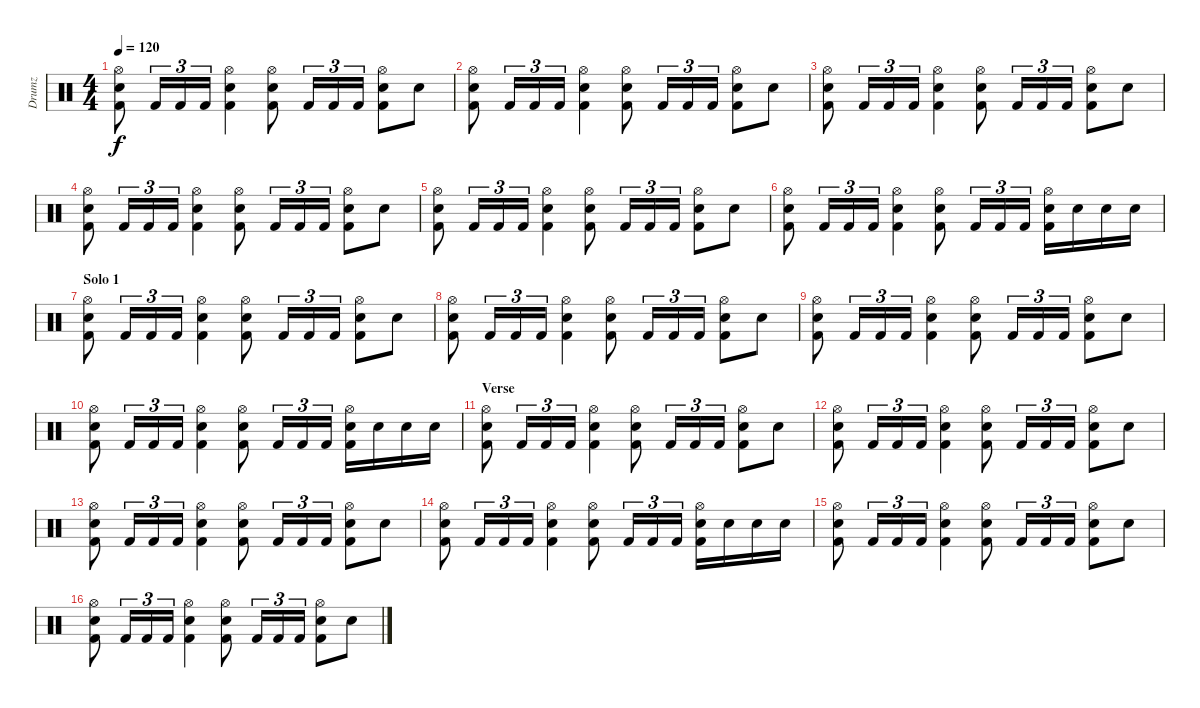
\track ("Drumz" "Drumz") {instrument percussion}
\staff {score}
\articulation defaults
\ts (4 4)
\tempo 120
\clef neutral
\ks c
("Hi-Hat (open)" "Snare (hit) 2" "Kick (hit) 2").8{dy f} "Kick (hit) 2".16{tu (3 2)} "Kick (hit) 2".16{tu (3 2)} "Kick (hit) 2".16{tu (3 2)} ("Hi-Hat (open)" "Snare (hit) 2" "Kick (hit) 2").4 ("Hi-Hat (open)" "Snare (hit) 2" "Kick (hit) 2").8 "Kick (hit) 2".16{tu (3 2)} "Kick (hit) 2".16{tu (3 2)} "Kick (hit) 2".16{tu (3 2)} ("Hi-Hat (open)" "Snare (hit) 2" "Kick (hit) 2").8 "Snare (hit) 2".8 |
("Hi-Hat (open)" "Snare (hit) 2" "Kick (hit) 2").8 "Kick (hit) 2".16{tu (3 2)} "Kick (hit) 2".16{tu (3 2)} "Kick (hit) 2".16{tu (3 2)} ("Hi-Hat (open)" "Snare (hit) 2" "Kick (hit) 2").4 ("Hi-Hat (open)" "Snare (hit) 2" "Kick (hit) 2").8 "Kick (hit) 2".16{tu (3 2)} "Kick (hit) 2".16{tu (3 2)} "Kick (hit) 2".16{tu (3 2)} ("Hi-Hat (open)" "Snare (hit) 2" "Kick (hit) 2").8 "Snare (hit) 2".8 |
("Hi-Hat (open)" "Snare (hit) 2" "Kick (hit) 2").8 "Kick (hit) 2".16{tu (3 2)} "Kick (hit) 2".16{tu (3 2)} "Kick (hit) 2".16{tu (3 2)} ("Hi-Hat (open)" "Snare (hit) 2" "Kick (hit) 2").4 ("Hi-Hat (open)" "Snare (hit) 2" "Kick (hit) 2").8 "Kick (hit) 2".16{tu (3 2)} "Kick (hit) 2".16{tu (3 2)} "Kick (hit) 2".16{tu (3 2)} ("Hi-Hat (open)" "Snare (hit) 2" "Kick (hit) 2").8 "Snare (hit) 2".8 |
("Hi-Hat (open)" "Snare (hit) 2" "Kick (hit) 2").8 "Kick (hit) 2".16{tu (3 2)} "Kick (hit) 2".16{tu (3 2)} "Kick (hit) 2".16{tu (3 2)} ("Hi-Hat (open)" "Snare (hit) 2" "Kick (hit) 2").4 ("Hi-Hat (open)" "Snare (hit) 2" "Kick (hit) 2").8 "Kick (hit) 2".16{tu (3 2)} "Kick (hit) 2".16{tu (3 2)} "Kick (hit) 2".16{tu (3 2)} ("Hi-Hat (open)" "Snare (hit) 2" "Kick (hit) 2").8 "Snare (hit) 2".8 |
("Hi-Hat (open)" "Snare (hit) 2" "Kick (hit) 2").8 "Kick (hit) 2".16{tu (3 2)} "Kick (hit) 2".16{tu (3 2)} "Kick (hit) 2".16{tu (3 2)} ("Hi-Hat (open)" "Snare (hit) 2" "Kick (hit) 2").4 ("Hi-Hat (open)" "Snare (hit) 2" "Kick (hit) 2").8 "Kick (hit) 2".16{tu (3 2)} "Kick (hit) 2".16{tu (3 2)} "Kick (hit) 2".16{tu (3 2)} ("Hi-Hat (open)" "Snare (hit) 2" "Kick (hit) 2").8 "Snare (hit) 2".8 |
("Hi-Hat (open)" "Snare (hit) 2" "Kick (hit) 2").8 "Kick (hit) 2".16{tu (3 2)} "Kick (hit) 2".16{tu (3 2)} "Kick (hit) 2".16{tu (3 2)} ("Hi-Hat (open)" "Snare (hit) 2" "Kick (hit) 2").4 ("Hi-Hat (open)" "Snare (hit) 2" "Kick (hit) 2").8 "Kick (hit) 2".16{tu (3 2)} "Kick (hit) 2".16{tu (3 2)} "Kick (hit) 2".16{tu (3 2)} ("Hi-Hat (open)" "Snare (hit) 2" "Kick (hit) 2").16 "Snare (hit) 2".16 "Snare (hit) 2".16 "Snare (hit) 2".16 |
\section ("" "Solo 1")
("Hi-Hat (open)" "Snare (hit) 2" "Kick (hit) 2").8 "Kick (hit) 2".16{tu (3 2)} "Kick (hit) 2".16{tu (3 2)} "Kick (hit) 2".16{tu (3 2)} ("Hi-Hat (open)" "Snare (hit) 2" "Kick (hit) 2").4 ("Hi-Hat (open)" "Snare (hit) 2" "Kick (hit) 2").8 "Kick (hit) 2".16{tu (3 2)} "Kick (hit) 2".16{tu (3 2)} "Kick (hit) 2".16{tu (3 2)} ("Hi-Hat (open)" "Snare (hit) 2" "Kick (hit) 2").8 "Snare (hit) 2".8 |
("Hi-Hat (open)" "Snare (hit) 2" "Kick (hit) 2").8 "Kick (hit) 2".16{tu (3 2)} "Kick (hit) 2".16{tu (3 2)} "Kick (hit) 2".16{tu (3 2)} ("Hi-Hat (open)" "Snare (hit) 2" "Kick (hit) 2").4 ("Hi-Hat (open)" "Snare (hit) 2" "Kick (hit) 2").8 "Kick (hit) 2".16{tu (3 2)} "Kick (hit) 2".16{tu (3 2)} "Kick (hit) 2".16{tu (3 2)} ("Hi-Hat (open)" "Snare (hit) 2" "Kick (hit) 2").8 "Snare (hit) 2".8 |
("Hi-Hat (open)" "Snare (hit) 2" "Kick (hit) 2").8 "Kick (hit) 2".16{tu (3 2)} "Kick (hit) 2".16{tu (3 2)} "Kick (hit) 2".16{tu (3 2)} ("Hi-Hat (open)" "Snare (hit) 2" "Kick (hit) 2").4 ("Hi-Hat (open)" "Snare (hit) 2" "Kick (hit) 2").8 "Kick (hit) 2".16{tu (3 2)} "Kick (hit) 2".16{tu (3 2)} "Kick (hit) 2".16{tu (3 2)} ("Hi-Hat (open)" "Snare (hit) 2" "Kick (hit) 2").8 "Snare (hit) 2".8 |
("Hi-Hat (open)" "Snare (hit) 2" "Kick (hit) 2").8 "Kick (hit) 2".16{tu (3 2)} "Kick (hit) 2".16{tu (3 2)} "Kick (hit) 2".16{tu (3 2)} ("Hi-Hat (open)" "Snare (hit) 2" "Kick (hit) 2").4 ("Hi-Hat (open)" "Snare (hit) 2" "Kick (hit) 2").8 "Kick (hit) 2".16{tu (3 2)} "Kick (hit) 2".16{tu (3 2)} "Kick (hit) 2".16{tu (3 2)} ("Hi-Hat (open)" "Snare (hit) 2" "Kick (hit) 2").16 "Snare (hit) 2".16 "Snare (hit) 2".16 "Snare (hit) 2".16 |
\section ("" "Verse")
("Hi-Hat (open)" "Snare (hit) 2" "Kick (hit) 2").8 "Kick (hit) 2".16{tu (3 2)} "Kick (hit) 2".16{tu (3 2)} "Kick (hit) 2".16{tu (3 2)} ("Hi-Hat (open)" "Snare (hit) 2" "Kick (hit) 2").4 ("Hi-Hat (open)" "Snare (hit) 2" "Kick (hit) 2").8 "Kick (hit) 2".16{tu (3 2)} "Kick (hit) 2".16{tu (3 2)} "Kick (hit) 2".16{tu (3 2)} ("Hi-Hat (open)" "Snare (hit) 2" "Kick (hit) 2").8 "Snare (hit) 2".8 |
("Hi-Hat (open)" "Snare (hit) 2" "Kick (hit) 2").8 "Kick (hit) 2".16{tu (3 2)} "Kick (hit) 2".16{tu (3 2)} "Kick (hit) 2".16{tu (3 2)} ("Hi-Hat (open)" "Snare (hit) 2" "Kick (hit) 2").4 ("Hi-Hat (open)" "Snare (hit) 2" "Kick (hit) 2").8 "Kick (hit) 2".16{tu (3 2)} "Kick (hit) 2".16{tu (3 2)} "Kick (hit) 2".16{tu (3 2)} ("Hi-Hat (open)" "Snare (hit) 2" "Kick (hit) 2").8 "Snare (hit) 2".8 |
("Hi-Hat (open)" "Snare (hit) 2" "Kick (hit) 2").8 "Kick (hit) 2".16{tu (3 2)} "Kick (hit) 2".16{tu (3 2)} "Kick (hit) 2".16{tu (3 2)} ("Hi-Hat (open)" "Snare (hit) 2" "Kick (hit) 2").4 ("Hi-Hat (open)" "Snare (hit) 2" "Kick (hit) 2").8 "Kick (hit) 2".16{tu (3 2)} "Kick (hit) 2".16{tu (3 2)} "Kick (hit) 2".16{tu (3 2)} ("Hi-Hat (open)" "Snare (hit) 2" "Kick (hit) 2").8 "Snare (hit) 2".8 |
("Hi-Hat (open)" "Snare (hit) 2" "Kick (hit) 2").8 "Kick (hit) 2".16{tu (3 2)} "Kick (hit) 2".16{tu (3 2)} "Kick (hit) 2".16{tu (3 2)} ("Hi-Hat (open)" "Snare (hit) 2" "Kick (hit) 2").4 ("Hi-Hat (open)" "Snare (hit) 2" "Kick (hit) 2").8 "Kick (hit) 2".16{tu (3 2)} "Kick (hit) 2".16{tu (3 2)} "Kick (hit) 2".16{tu (3 2)} ("Hi-Hat (open)" "Snare (hit) 2" "Kick (hit) 2").16 "Snare (hit) 2".16 "Snare (hit) 2".16 "Snare (hit) 2".16 |
("Hi-Hat (open)" "Snare (hit) 2" "Kick (hit) 2").8 "Kick (hit) 2".16{tu (3 2)} "Kick (hit) 2".16{tu (3 2)} "Kick (hit) 2".16{tu (3 2)} ("Hi-Hat (open)" "Snare (hit) 2" "Kick (hit) 2").4 ("Hi-Hat (open)" "Snare (hit) 2" "Kick (hit) 2").8 "Kick (hit) 2".16{tu (3 2)} "Kick (hit) 2".16{tu (3 2)} "Kick (hit) 2".16{tu (3 2)} ("Hi-Hat (open)" "Snare (hit) 2" "Kick (hit) 2").8 "Snare (hit) 2".8 |
("Hi-Hat (open)" "Snare (hit) 2" "Kick (hit) 2").8 "Kick (hit) 2".16{tu (3 2)} "Kick (hit) 2".16{tu (3 2)} "Kick (hit) 2".16{tu (3 2)} ("Hi-Hat (open)" "Snare (hit) 2" "Kick (hit) 2").4 ("Hi-Hat (open)" "Snare (hit) 2" "Kick (hit) 2").8 "Kick (hit) 2".16{tu (3 2)} "Kick (hit) 2".16{tu (3 2)} "Kick (hit) 2".16{tu (3 2)} ("Hi-Hat (open)" "Snare (hit) 2" "Kick (hit) 2").8 "Snare (hit) 2".8
